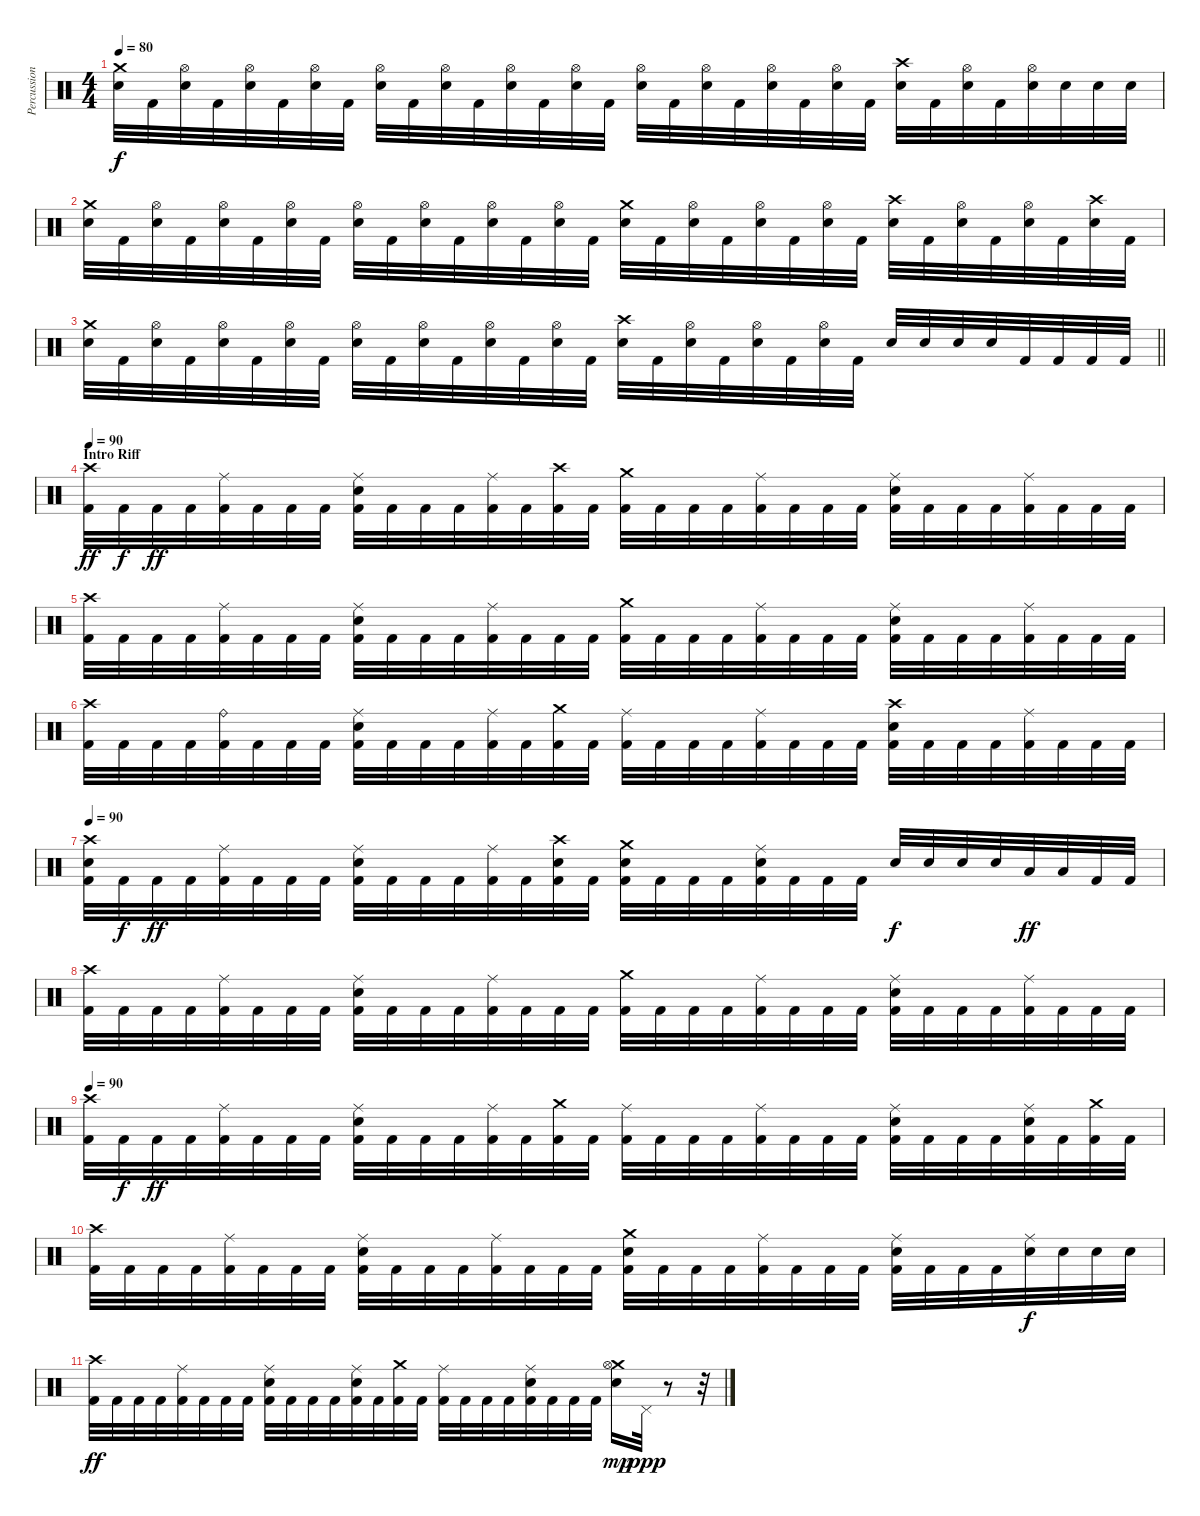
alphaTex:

\track ("Percussion" "Percussion") {instrument percussion}
\staff {score}
\articulation defaults
\ts (4 4)
\tempo 80
\clef neutral
\ks c
("Crash medium (hit)" "Electric Snare (hit)").32{dy f} "Kick (hit) 2".32 ("Hi-Hat (open)" "Electric Snare (hit)").32 "Kick (hit) 2".32 ("Hi-Hat (open)" "Electric Snare (hit)").32 "Kick (hit) 2".32 ("Hi-Hat (open)" "Electric Snare (hit)").32 "Kick (hit) 2".32 ("Hi-Hat (open)" "Electric Snare (hit)").32 "Kick (hit) 2".32 ("Hi-Hat (open)" "Electric Snare (hit)").32 "Kick (hit) 2".32 ("Hi-Hat (open)" "Electric Snare (hit)").32 "Kick (hit) 2".32 ("Hi-Hat (open)" "Electric Snare (hit)").32 "Kick (hit) 2".32 ("Hi-Hat (open)" "Electric Snare (hit)").32 "Kick (hit) 2".32 ("Hi-Hat (open)" "Electric Snare (hit)").32 "Kick (hit) 2".32 ("Hi-Hat (open)" "Electric Snare (hit)").32 "Kick (hit) 2".32 ("Hi-Hat (open)" "Electric Snare (hit)").32 "Kick (hit) 2".32 ("Crash high (hit)" "Electric Snare (hit)").32 "Kick (hit) 2".32 ("Hi-Hat (open)" "Electric Snare (hit)").32 "Kick (hit) 2".32 ("Hi-Hat (open)" "Electric Snare (hit)").32 "Electric Snare (hit)".32 "Electric Snare (hit)".32 "Electric Snare (hit)".32 |
("Crash medium (hit)" "Electric Snare (hit)").32 "Kick (hit) 2".32 ("Hi-Hat (open)" "Electric Snare (hit)").32 "Kick (hit) 2".32 ("Hi-Hat (open)" "Electric Snare (hit)").32 "Kick (hit) 2".32 ("Hi-Hat (open)" "Electric Snare (hit)").32 "Kick (hit) 2".32 ("Hi-Hat (open)" "Electric Snare (hit)").32 "Kick (hit) 2".32 ("Hi-Hat (open)" "Electric Snare (hit)").32 "Kick (hit) 2".32 ("Hi-Hat (open)" "Electric Snare (hit)").32 "Kick (hit) 2".32 ("Hi-Hat (open)" "Electric Snare (hit)").32 "Kick (hit) 2".32 ("Crash medium (hit)" "Electric Snare (hit)").32 "Kick (hit) 2".32 ("Hi-Hat (open)" "Electric Snare (hit)").32 "Kick (hit) 2".32 ("Hi-Hat (open)" "Electric Snare (hit)").32 "Kick (hit) 2".32 ("Hi-Hat (open)" "Electric Snare (hit)").32 "Kick (hit) 2".32 ("Crash high (hit)" "Electric Snare (hit)").32 "Kick (hit) 2".32 ("Hi-Hat (open)" "Electric Snare (hit)").32 "Kick (hit) 2".32 ("Hi-Hat (open)" "Electric Snare (hit)").32 "Kick (hit) 2".32 ("Crash high (hit)" "Electric Snare (hit)").32 "Kick (hit) 2".32 |
\barLineRight lightlight
("Crash medium (hit)" "Electric Snare (hit)").32 "Kick (hit) 2".32 ("Hi-Hat (open)" "Electric Snare (hit)").32 "Kick (hit) 2".32 ("Hi-Hat (open)" "Electric Snare (hit)").32 "Kick (hit) 2".32 ("Hi-Hat (open)" "Electric Snare (hit)").32 "Kick (hit) 2".32 ("Hi-Hat (open)" "Electric Snare (hit)").32 "Kick (hit) 2".32 ("Hi-Hat (open)" "Electric Snare (hit)").32 "Kick (hit) 2".32 ("Hi-Hat (open)" "Electric Snare (hit)").32 "Kick (hit) 2".32 ("Hi-Hat (open)" "Electric Snare (hit)").32 "Kick (hit) 2".32 ("Crash high (hit)" "Electric Snare (hit)").32 "Kick (hit) 2".32 ("Hi-Hat (open)" "Electric Snare (hit)").32 "Kick (hit) 2".32 ("Hi-Hat (open)" "Electric Snare (hit)").32 "Kick (hit) 2".32 ("Hi-Hat (open)" "Electric Snare (hit)").32 "Kick (hit) 2".32 "Electric Snare (hit)".32 "Electric Snare (hit)".32 "Electric Snare (hit)".32 "Electric Snare (hit)".32 "Kick (hit) 2".32 "Kick (hit) 2".32 "Kick (hit) 2".32 "Kick (hit) 2".32 |
\section ("" "Intro Riff")
\tempo 90
("Crash high (hit)" "Kick (hit) 2").32{dy ff} "Kick (hit) 2".32{dy f} "Kick (hit) 2".32{dy ff} "Kick (hit) 2".32 ("Ride (middle)" "Kick (hit) 2").32 "Kick (hit) 2".32 "Kick (hit) 2".32 "Kick (hit) 2".32 ("Ride (middle)" "Electric Snare (hit)" "Kick (hit) 2").32 "Kick (hit) 2".32 "Kick (hit) 2".32 "Kick (hit) 2".32 ("Ride (middle)" "Kick (hit) 2").32 "Kick (hit) 2".32 ("Crash high (hit)" "Kick (hit) 2").32 "Kick (hit) 2".32 ("Crash medium (hit)" "Kick (hit) 2").32 "Kick (hit) 2".32 "Kick (hit) 2".32 "Kick (hit) 2".32 ("Ride (middle)" "Kick (hit) 2").32 "Kick (hit) 2".32 "Kick (hit) 2".32 "Kick (hit) 2".32 ("Ride (middle)" "Electric Snare (hit)" "Kick (hit) 2").32 "Kick (hit) 2".32 "Kick (hit) 2".32 "Kick (hit) 2".32 ("Ride (middle)" "Kick (hit) 2").32 "Kick (hit) 2".32 "Kick (hit) 2".32 "Kick (hit) 2".32 |
("Crash high (hit)" "Kick (hit) 2").32 "Kick (hit) 2".32 "Kick (hit) 2".32 "Kick (hit) 2".32 ("Ride (middle)" "Kick (hit) 2").32 "Kick (hit) 2".32 "Kick (hit) 2".32 "Kick (hit) 2".32 ("Ride (middle)" "Electric Snare (hit)" "Kick (hit) 2").32 "Kick (hit) 2".32 "Kick (hit) 2".32 "Kick (hit) 2".32 ("Ride (middle)" "Kick (hit) 2").32 "Kick (hit) 2".32 "Kick (hit) 2".32 "Kick (hit) 2".32 ("Crash medium (hit)" "Kick (hit) 2").32 "Kick (hit) 2".32 "Kick (hit) 2".32 "Kick (hit) 2".32 ("Ride (middle)" "Kick (hit) 2").32 "Kick (hit) 2".32 "Kick (hit) 2".32 "Kick (hit) 2".32 ("Ride (middle)" "Electric Snare (hit)" "Kick (hit) 2").32 "Kick (hit) 2".32 "Kick (hit) 2".32 "Kick (hit) 2".32 ("Ride (middle)" "Kick (hit) 2").32 "Kick (hit) 2".32 "Kick (hit) 2".32 "Kick (hit) 2".32 |
("Crash high (hit)" "Kick (hit) 2").32 "Kick (hit) 2".32 "Kick (hit) 2".32 "Kick (hit) 2".32 ("Ride (bell)" "Kick (hit) 2").32 "Kick (hit) 2".32 "Kick (hit) 2".32 "Kick (hit) 2".32 ("Ride (middle)" "Electric Snare (hit)" "Kick (hit) 2").32 "Kick (hit) 2".32 "Kick (hit) 2".32 "Kick (hit) 2".32 ("Ride (middle)" "Kick (hit) 2").32 "Kick (hit) 2".32 ("Crash medium (hit)" "Kick (hit) 2").32 "Kick (hit) 2".32 ("Ride (middle)" "Kick (hit) 2").32 "Kick (hit) 2".32 "Kick (hit) 2".32 "Kick (hit) 2".32 ("Ride (middle)" "Kick (hit) 2").32 "Kick (hit) 2".32 "Kick (hit) 2".32 "Kick (hit) 2".32 ("Crash high (hit)" "Electric Snare (hit)" "Kick (hit) 2").32 "Kick (hit) 2".32 "Kick (hit) 2".32 "Kick (hit) 2".32 ("Ride (middle)" "Kick (hit) 2").32 "Kick (hit) 2".32 "Kick (hit) 2".32 "Kick (hit) 2".32 |
\tempo 90
("Crash high (hit)" "Electric Snare (hit)" "Kick (hit) 2").32 "Kick (hit) 2".32{dy f} "Kick (hit) 2".32{dy ff} "Kick (hit) 2".32 ("Ride (middle)" "Kick (hit) 2").32 "Kick (hit) 2".32 "Kick (hit) 2".32 "Kick (hit) 2".32 ("Ride (middle)" "Electric Snare (hit)" "Kick (hit) 2").32 "Kick (hit) 2".32 "Kick (hit) 2".32 "Kick (hit) 2".32 ("Ride (middle)" "Kick (hit) 2").32 "Kick (hit) 2".32 ("Crash high (hit)" "Electric Snare (hit)" "Kick (hit) 2").32 "Kick (hit) 2".32 ("Crash medium (hit)" "Electric Snare (hit)" "Kick (hit) 2").32 "Kick (hit) 2".32 "Kick (hit) 2".32 "Kick (hit) 2".32 ("Ride (middle)" "Electric Snare (hit)" "Kick (hit) 2").32 "Kick (hit) 2".32 "Kick (hit) 2".32 "Kick (hit) 2".32 "Electric Snare (hit)".32{dy f} "Electric Snare (hit)".32 "Electric Snare (hit)".32 "Electric Snare (hit)".32 "Low Floor Tom (hit)".32{dy ff} "Low Floor Tom (hit)".32 "Kick (hit) 2".32 "Kick (hit) 2".32 |
("Crash high (hit)" "Kick (hit) 2").32 "Kick (hit) 2".32 "Kick (hit) 2".32 "Kick (hit) 2".32 ("Ride (middle)" "Kick (hit) 2").32 "Kick (hit) 2".32 "Kick (hit) 2".32 "Kick (hit) 2".32 ("Ride (middle)" "Electric Snare (hit)" "Kick (hit) 2").32 "Kick (hit) 2".32 "Kick (hit) 2".32 "Kick (hit) 2".32 ("Ride (middle)" "Kick (hit) 2").32 "Kick (hit) 2".32 "Kick (hit) 2".32 "Kick (hit) 2".32 ("Crash medium (hit)" "Kick (hit) 2").32 "Kick (hit) 2".32 "Kick (hit) 2".32 "Kick (hit) 2".32 ("Ride (middle)" "Kick (hit) 2").32 "Kick (hit) 2".32 "Kick (hit) 2".32 "Kick (hit) 2".32 ("Ride (middle)" "Electric Snare (hit)" "Kick (hit) 2").32 "Kick (hit) 2".32 "Kick (hit) 2".32 "Kick (hit) 2".32 ("Ride (middle)" "Kick (hit) 2").32 "Kick (hit) 2".32 "Kick (hit) 2".32 "Kick (hit) 2".32 |
\tempo 90
("Crash high (hit)" "Kick (hit) 2").32 "Kick (hit) 2".32{dy f} "Kick (hit) 2".32{dy ff} "Kick (hit) 2".32 ("Ride (middle)" "Kick (hit) 2").32 "Kick (hit) 2".32 "Kick (hit) 2".32 "Kick (hit) 2".32 ("Ride (middle)" "Electric Snare (hit)" "Kick (hit) 2").32 "Kick (hit) 2".32 "Kick (hit) 2".32 "Kick (hit) 2".32 ("Ride (middle)" "Kick (hit) 2").32 "Kick (hit) 2".32 ("Crash medium (hit)" "Kick (hit) 2").32 "Kick (hit) 2".32 ("Ride (middle)" "Kick (hit) 2").32 "Kick (hit) 2".32 "Kick (hit) 2".32 "Kick (hit) 2".32 ("Ride (middle)" "Kick (hit) 2").32 "Kick (hit) 2".32 "Kick (hit) 2".32 "Kick (hit) 2".32 ("Ride (middle)" "Electric Snare (hit)" "Kick (hit) 2").32 "Kick (hit) 2".32 "Kick (hit) 2".32 "Kick (hit) 2".32 ("Ride (middle)" "Electric Snare (hit)" "Kick (hit) 2").32 "Kick (hit) 2".32 ("Crash medium (hit)" "Kick (hit) 2").32 "Kick (hit) 2".32 |
("Crash high (hit)" "Kick (hit) 2").32 "Kick (hit) 2".32 "Kick (hit) 2".32 "Kick (hit) 2".32 ("Ride (middle)" "Kick (hit) 2").32 "Kick (hit) 2".32 "Kick (hit) 2".32 "Kick (hit) 2".32 ("Ride (middle)" "Electric Snare (hit)" "Kick (hit) 2").32 "Kick (hit) 2".32 "Kick (hit) 2".32 "Kick (hit) 2".32 ("Ride (middle)" "Kick (hit) 2").32 "Kick (hit) 2".32 "Kick (hit) 2".32 "Kick (hit) 2".32 ("Crash medium (hit)" "Electric Snare (hit)" "Kick (hit) 2").32 "Kick (hit) 2".32 "Kick (hit) 2".32 "Kick (hit) 2".32 ("Ride (middle)" "Kick (hit) 2").32 "Kick (hit) 2".32 "Kick (hit) 2".32 "Kick (hit) 2".32 ("Ride (middle)" "Electric Snare (hit)" "Kick (hit) 2").32 "Kick (hit) 2".32 "Kick (hit) 2".32 "Kick (hit) 2".32 ("Ride (middle)" "Electric Snare (hit)").32{dy f} "Electric Snare (hit)".32 "Electric Snare (hit)".32 "Electric Snare (hit)".32 |
("Crash high (hit)" "Kick (hit) 2").32{dy ff} "Kick (hit) 2".32 "Kick (hit) 2".32 "Kick (hit) 2".32 ("Ride (middle)" "Kick (hit) 2").32 "Kick (hit) 2".32 "Kick (hit) 2".32 "Kick (hit) 2".32 ("Ride (middle)" "Electric Snare (hit)" "Kick (hit) 2").32 "Kick (hit) 2".32 "Kick (hit) 2".32 "Kick (hit) 2".32 ("Ride (middle)" "Electric Snare (hit)" "Kick (hit) 2").32 "Kick (hit) 2".32 ("Crash medium (hit)" "Kick (hit) 2").32 "Kick (hit) 2".32 ("Ride (middle)" "Kick (hit) 2").32 "Kick (hit) 2".32 "Kick (hit) 2".32 "Kick (hit) 2".32 ("Ride (middle)" "Electric Snare (hit)" "Kick (hit) 2").32 "Kick (hit) 2".32 "Kick (hit) 2".32 "Kick (hit) 2".32 ("Crash medium (hit)" "Hi-Hat (open)" "Electric Snare (hit)").16{dy mp} "Pedal Hi-Hat (hit)".32{dy ppp} r.8 r.32
